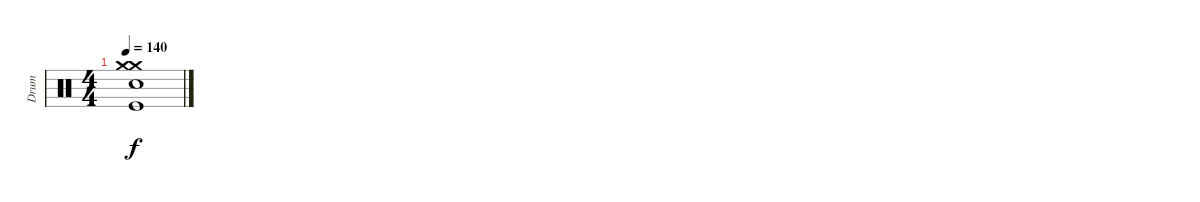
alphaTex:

\track ("Drum" "Drum") {instrument percussion}
\staff {score}
\articulation defaults
\ts (4 4)
\tempo 140
\clef neutral
\ks c
("Crash medium (hit)" "Crash medium (hit)" "Snare (hit) 2" "Kick (hit)").1{dy f}
